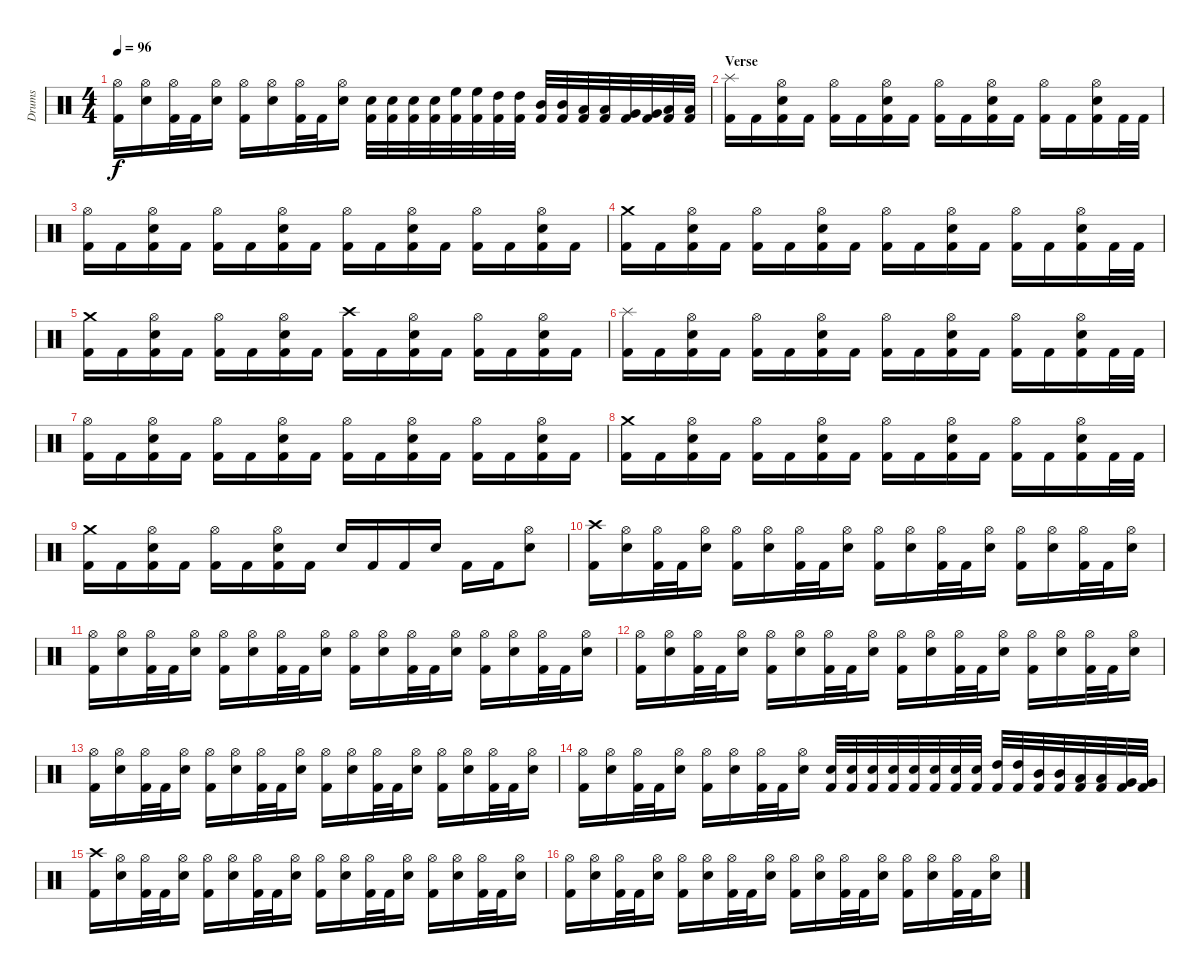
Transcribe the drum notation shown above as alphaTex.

\track ("Drums" "Drums") {instrument percussion}
\staff {score}
\articulation defaults
\ts (4 4)
\tempo 96
\clef neutral
\ks c
("Kick (hit) 2" "Hi-Hat (open)").16{dy f} ("Snare (hit) 2" "Hi-Hat (open)").16 ("Kick (hit) 2" "Hi-Hat (open)").32 "Kick (hit) 2".32 ("Snare (hit) 2" "Hi-Hat (open)").16 ("Kick (hit) 2" "Hi-Hat (open)").16 ("Snare (hit) 2" "Hi-Hat (open)").16 ("Kick (hit) 2" "Hi-Hat (open)").32 "Kick (hit) 2".32 ("Snare (hit) 2" "Hi-Hat (open)").16 ("Kick (hit) 2" "Snare (hit) 2").32 ("Kick (hit) 2" "Snare (hit) 2").32 ("Kick (hit) 2" "Snare (hit) 2").32 ("Kick (hit) 2" "Snare (hit) 2").32 ("Kick (hit) 2" "High Floor Tom (hit)").32 ("Kick (hit) 2" "High Floor Tom (hit)").32 ("Kick (hit) 2" "High Tom (hit)").32 ("Kick (hit) 2" "High Tom (hit)").32 ("Kick (hit) 2" "Mid Tom (hit)").32 ("Kick (hit) 2" "Mid Tom (hit)").32 ("Kick (hit) 2" "Low Tom (hit)").32 ("Kick (hit) 2" "Low Tom (hit)").32 ("Kick (hit) 2" "Very Low Tom (hit)").32 ("Kick (hit) 2" "Very Low Tom (hit)").32 ("Kick (hit) 2" "Low Floor Tom (hit)").32 ("Kick (hit) 2" "Low Floor Tom (hit)").32 |
\section ("" "Verse")
("Kick (hit) 2" "Splash (hit)").16 "Kick (hit) 2".16 ("Kick (hit) 2" "Snare (hit) 2" "Hi-Hat (open)").16 "Kick (hit) 2".16 ("Kick (hit) 2" "Hi-Hat (open)").16 "Kick (hit) 2".16 ("Kick (hit) 2" "Snare (hit) 2" "Hi-Hat (open)").16 "Kick (hit) 2".16 ("Kick (hit) 2" "Hi-Hat (open)").16 "Kick (hit) 2".16 ("Kick (hit) 2" "Snare (hit) 2" "Hi-Hat (open)").16 "Kick (hit) 2".16 ("Kick (hit) 2" "Hi-Hat (open)").16 "Kick (hit) 2".16 ("Kick (hit) 2" "Snare (hit) 2" "Hi-Hat (open)").16 "Kick (hit) 2".32 "Kick (hit) 2".32 |
("Kick (hit) 2" "Hi-Hat (open)").16 "Kick (hit) 2".16 ("Kick (hit) 2" "Snare (hit) 2" "Hi-Hat (open)").16 "Kick (hit) 2".16 ("Kick (hit) 2" "Hi-Hat (open)").16 "Kick (hit) 2".16 ("Kick (hit) 2" "Snare (hit) 2" "Hi-Hat (open)").16 "Kick (hit) 2".16 ("Kick (hit) 2" "Hi-Hat (open)").16 "Kick (hit) 2".16 ("Kick (hit) 2" "Snare (hit) 2" "Hi-Hat (open)").16 "Kick (hit) 2".16 ("Kick (hit) 2" "Hi-Hat (open)").16 "Kick (hit) 2".16 ("Kick (hit) 2" "Snare (hit) 2" "Hi-Hat (open)").16 "Kick (hit) 2".16 |
("Kick (hit) 2" "Crash medium (hit)").16 "Kick (hit) 2".16 ("Kick (hit) 2" "Snare (hit) 2" "Hi-Hat (open)").16 "Kick (hit) 2".16 ("Kick (hit) 2" "Hi-Hat (open)").16 "Kick (hit) 2".16 ("Kick (hit) 2" "Snare (hit) 2" "Hi-Hat (open)").16 "Kick (hit) 2".16 ("Kick (hit) 2" "Hi-Hat (open)").16 "Kick (hit) 2".16 ("Kick (hit) 2" "Snare (hit) 2" "Hi-Hat (open)").16 "Kick (hit) 2".16 ("Kick (hit) 2" "Hi-Hat (open)").16 "Kick (hit) 2".16 ("Kick (hit) 2" "Snare (hit) 2" "Hi-Hat (open)").16 "Kick (hit) 2".32 "Kick (hit) 2".32 |
("Kick (hit) 2" "Crash medium (hit)").16 "Kick (hit) 2".16 ("Kick (hit) 2" "Snare (hit) 2" "Hi-Hat (open)").16 "Kick (hit) 2".16 ("Kick (hit) 2" "Hi-Hat (open)").16 "Kick (hit) 2".16 ("Kick (hit) 2" "Snare (hit) 2" "Hi-Hat (open)").16 "Kick (hit) 2".16 ("Kick (hit) 2" "Crash high (hit)").16 "Kick (hit) 2".16 ("Kick (hit) 2" "Snare (hit) 2" "Hi-Hat (open)").16 "Kick (hit) 2".16 ("Kick (hit) 2" "Hi-Hat (open)").16 "Kick (hit) 2".16 ("Kick (hit) 2" "Snare (hit) 2" "Hi-Hat (open)").16 "Kick (hit) 2".16 |
("Kick (hit) 2" "Splash (hit)").16 "Kick (hit) 2".16 ("Kick (hit) 2" "Snare (hit) 2" "Hi-Hat (open)").16 "Kick (hit) 2".16 ("Kick (hit) 2" "Hi-Hat (open)").16 "Kick (hit) 2".16 ("Kick (hit) 2" "Snare (hit) 2" "Hi-Hat (open)").16 "Kick (hit) 2".16 ("Kick (hit) 2" "Hi-Hat (open)").16 "Kick (hit) 2".16 ("Kick (hit) 2" "Snare (hit) 2" "Hi-Hat (open)").16 "Kick (hit) 2".16 ("Kick (hit) 2" "Hi-Hat (open)").16 "Kick (hit) 2".16 ("Kick (hit) 2" "Snare (hit) 2" "Hi-Hat (open)").16 "Kick (hit) 2".32 "Kick (hit) 2".32 |
("Kick (hit) 2" "Hi-Hat (open)").16 "Kick (hit) 2".16 ("Kick (hit) 2" "Snare (hit) 2" "Hi-Hat (open)").16 "Kick (hit) 2".16 ("Kick (hit) 2" "Hi-Hat (open)").16 "Kick (hit) 2".16 ("Kick (hit) 2" "Snare (hit) 2" "Hi-Hat (open)").16 "Kick (hit) 2".16 ("Kick (hit) 2" "Hi-Hat (open)").16 "Kick (hit) 2".16 ("Kick (hit) 2" "Snare (hit) 2" "Hi-Hat (open)").16 "Kick (hit) 2".16 ("Kick (hit) 2" "Hi-Hat (open)").16 "Kick (hit) 2".16 ("Kick (hit) 2" "Snare (hit) 2" "Hi-Hat (open)").16 "Kick (hit) 2".16 |
("Kick (hit) 2" "Crash medium (hit)").16 "Kick (hit) 2".16 ("Kick (hit) 2" "Snare (hit) 2" "Hi-Hat (open)").16 "Kick (hit) 2".16 ("Kick (hit) 2" "Hi-Hat (open)").16 "Kick (hit) 2".16 ("Kick (hit) 2" "Snare (hit) 2" "Hi-Hat (open)").16 "Kick (hit) 2".16 ("Kick (hit) 2" "Hi-Hat (open)").16 "Kick (hit) 2".16 ("Kick (hit) 2" "Snare (hit) 2" "Hi-Hat (open)").16 "Kick (hit) 2".16 ("Kick (hit) 2" "Hi-Hat (open)").16 "Kick (hit) 2".16 ("Kick (hit) 2" "Snare (hit) 2" "Hi-Hat (open)").16 "Kick (hit) 2".32 "Kick (hit) 2".32 |
("Kick (hit) 2" "Crash medium (hit)").16 "Kick (hit) 2".16 ("Kick (hit) 2" "Snare (hit) 2" "Hi-Hat (open)").16 "Kick (hit) 2".16 ("Kick (hit) 2" "Hi-Hat (open)").16 "Kick (hit) 2".16 ("Kick (hit) 2" "Snare (hit) 2" "Hi-Hat (open)").16 "Kick (hit) 2".16 "Snare (hit) 2".16 "Kick (hit) 2".16 "Kick (hit) 2".16 "Snare (hit) 2".16 "Kick (hit) 2".16 "Kick (hit) 2".16 ("Snare (hit) 2" "Hi-Hat (open)").8 |
\section ("" "")
("Kick (hit) 2" "Crash high (hit)").16 ("Snare (hit) 2" "Hi-Hat (open)").16 ("Kick (hit) 2" "Hi-Hat (open)").32 "Kick (hit) 2".32 ("Snare (hit) 2" "Hi-Hat (open)").16 ("Kick (hit) 2" "Hi-Hat (open)").16 ("Snare (hit) 2" "Hi-Hat (open)").16 ("Kick (hit) 2" "Hi-Hat (open)").32 "Kick (hit) 2".32 ("Snare (hit) 2" "Hi-Hat (open)").16 ("Kick (hit) 2" "Hi-Hat (open)").16 ("Snare (hit) 2" "Hi-Hat (open)").16 ("Kick (hit) 2" "Hi-Hat (open)").32 "Kick (hit) 2".32 ("Snare (hit) 2" "Hi-Hat (open)").16 ("Kick (hit) 2" "Hi-Hat (open)").16 ("Snare (hit) 2" "Hi-Hat (open)").16 ("Kick (hit) 2" "Hi-Hat (open)").32 "Kick (hit) 2".32 ("Snare (hit) 2" "Hi-Hat (open)").16 |
("Kick (hit) 2" "Hi-Hat (open)").16 ("Snare (hit) 2" "Hi-Hat (open)").16 ("Kick (hit) 2" "Hi-Hat (open)").32 "Kick (hit) 2".32 ("Snare (hit) 2" "Hi-Hat (open)").16 ("Kick (hit) 2" "Hi-Hat (open)").16 ("Snare (hit) 2" "Hi-Hat (open)").16 ("Kick (hit) 2" "Hi-Hat (open)").32 "Kick (hit) 2".32 ("Snare (hit) 2" "Hi-Hat (open)").16 ("Kick (hit) 2" "Hi-Hat (open)").16 ("Snare (hit) 2" "Hi-Hat (open)").16 ("Kick (hit) 2" "Hi-Hat (open)").32 "Kick (hit) 2".32 ("Snare (hit) 2" "Hi-Hat (open)").16 ("Kick (hit) 2" "Hi-Hat (open)").16 ("Snare (hit) 2" "Hi-Hat (open)").16 ("Kick (hit) 2" "Hi-Hat (open)").32 "Kick (hit) 2".32 ("Snare (hit) 2" "Hi-Hat (open)").16 |
("Kick (hit) 2" "Hi-Hat (open)").16 ("Snare (hit) 2" "Hi-Hat (open)").16 ("Kick (hit) 2" "Hi-Hat (open)").32 "Kick (hit) 2".32 ("Snare (hit) 2" "Hi-Hat (open)").16 ("Kick (hit) 2" "Hi-Hat (open)").16 ("Snare (hit) 2" "Hi-Hat (open)").16 ("Kick (hit) 2" "Hi-Hat (open)").32 "Kick (hit) 2".32 ("Snare (hit) 2" "Hi-Hat (open)").16 ("Kick (hit) 2" "Hi-Hat (open)").16 ("Snare (hit) 2" "Hi-Hat (open)").16 ("Kick (hit) 2" "Hi-Hat (open)").32 "Kick (hit) 2".32 ("Snare (hit) 2" "Hi-Hat (open)").16 ("Kick (hit) 2" "Hi-Hat (open)").16 ("Snare (hit) 2" "Hi-Hat (open)").16 ("Kick (hit) 2" "Hi-Hat (open)").32 "Kick (hit) 2".32 ("Snare (hit) 2" "Hi-Hat (open)").16 |
("Kick (hit) 2" "Hi-Hat (open)").16 ("Snare (hit) 2" "Hi-Hat (open)").16 ("Kick (hit) 2" "Hi-Hat (open)").32 "Kick (hit) 2".32 ("Snare (hit) 2" "Hi-Hat (open)").16 ("Kick (hit) 2" "Hi-Hat (open)").16 ("Snare (hit) 2" "Hi-Hat (open)").16 ("Kick (hit) 2" "Hi-Hat (open)").32 "Kick (hit) 2".32 ("Snare (hit) 2" "Hi-Hat (open)").16 ("Kick (hit) 2" "Hi-Hat (open)").16 ("Snare (hit) 2" "Hi-Hat (open)").16 ("Kick (hit) 2" "Hi-Hat (open)").32 "Kick (hit) 2".32 ("Snare (hit) 2" "Hi-Hat (open)").16 ("Kick (hit) 2" "Hi-Hat (open)").16 ("Snare (hit) 2" "Hi-Hat (open)").16 ("Kick (hit) 2" "Hi-Hat (open)").32 "Kick (hit) 2".32 ("Snare (hit) 2" "Hi-Hat (open)").16 |
("Kick (hit) 2" "Hi-Hat (open)").16 ("Snare (hit) 2" "Hi-Hat (open)").16 ("Kick (hit) 2" "Hi-Hat (open)").32 "Kick (hit) 2".32 ("Snare (hit) 2" "Hi-Hat (open)").16 ("Kick (hit) 2" "Hi-Hat (open)").16 ("Snare (hit) 2" "Hi-Hat (open)").16 ("Kick (hit) 2" "Hi-Hat (open)").32 "Kick (hit) 2".32 ("Snare (hit) 2" "Hi-Hat (open)").16 ("Kick (hit) 2" "Snare (hit) 2").32 ("Kick (hit) 2" "Snare (hit) 2").32 ("Kick (hit) 2" "Snare (hit) 2").32 ("Kick (hit) 2" "Snare (hit) 2").32 ("Kick (hit) 2" "Snare (hit) 2").32 ("Kick (hit) 2" "Snare (hit) 2").32 ("Kick (hit) 2" "Snare (hit) 2").32 ("Kick (hit) 2" "Snare (hit) 2").32 ("Kick (hit) 2" "High Tom (hit)").32 ("Kick (hit) 2" "High Tom (hit)").32 ("Kick (hit) 2" "Mid Tom (hit)").32 ("Kick (hit) 2" "Mid Tom (hit)").32 ("Kick (hit) 2" "Low Tom (hit)").32 ("Kick (hit) 2" "Low Tom (hit)").32 ("Kick (hit) 2" "Very Low Tom (hit)").32 ("Kick (hit) 2" "Very Low Tom (hit)").32 |
("Kick (hit) 2" "Crash high (hit)").16 ("Snare (hit) 2" "Hi-Hat (open)").16 ("Kick (hit) 2" "Hi-Hat (open)").32 "Kick (hit) 2".32 ("Snare (hit) 2" "Hi-Hat (open)").16 ("Kick (hit) 2" "Hi-Hat (open)").16 ("Snare (hit) 2" "Hi-Hat (open)").16 ("Kick (hit) 2" "Hi-Hat (open)").32 "Kick (hit) 2".32 ("Snare (hit) 2" "Hi-Hat (open)").16 ("Kick (hit) 2" "Hi-Hat (open)").16 ("Snare (hit) 2" "Hi-Hat (open)").16 ("Kick (hit) 2" "Hi-Hat (open)").32 "Kick (hit) 2".32 ("Snare (hit) 2" "Hi-Hat (open)").16 ("Kick (hit) 2" "Hi-Hat (open)").16 ("Snare (hit) 2" "Hi-Hat (open)").16 ("Kick (hit) 2" "Hi-Hat (open)").32 "Kick (hit) 2".32 ("Snare (hit) 2" "Hi-Hat (open)").16 |
("Kick (hit) 2" "Hi-Hat (open)").16 ("Snare (hit) 2" "Hi-Hat (open)").16 ("Kick (hit) 2" "Hi-Hat (open)").32 "Kick (hit) 2".32 ("Snare (hit) 2" "Hi-Hat (open)").16 ("Kick (hit) 2" "Hi-Hat (open)").16 ("Snare (hit) 2" "Hi-Hat (open)").16 ("Kick (hit) 2" "Hi-Hat (open)").32 "Kick (hit) 2".32 ("Snare (hit) 2" "Hi-Hat (open)").16 ("Kick (hit) 2" "Hi-Hat (open)").16 ("Snare (hit) 2" "Hi-Hat (open)").16 ("Kick (hit) 2" "Hi-Hat (open)").32 "Kick (hit) 2".32 ("Snare (hit) 2" "Hi-Hat (open)").16 ("Kick (hit) 2" "Hi-Hat (open)").16 ("Snare (hit) 2" "Hi-Hat (open)").16 ("Kick (hit) 2" "Hi-Hat (open)").32 "Kick (hit) 2".32 ("Snare (hit) 2" "Hi-Hat (open)").16
